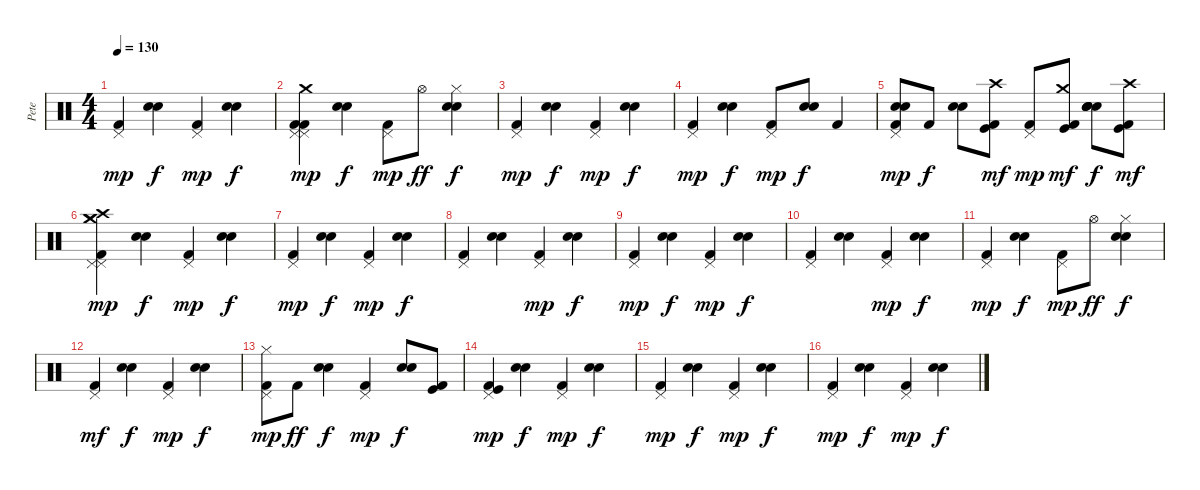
\track ("Pete" "Pete") {instrument percussion}
\staff {score}
\articulation defaults
\ts (4 4)
\tempo 130
\clef neutral
\ks c
("Pedal Hi-Hat (hit)" "Kick (hit) 2").4{dy mp} ("Snare (hit) 2" "Electric Snare (hit)").4{dy f} ("Pedal Hi-Hat (hit)" "Kick (hit) 2").4{dy mp} ("Snare (hit) 2" "Electric Snare (hit)").4{dy f} |
("Pedal Hi-Hat (hit)" "Crash medium (hit)" "Kick (hit) 2" "Pedal Hi-Hat (hit)" "Kick (hit) 2").4{dy mp} ("Snare (hit) 2" "Electric Snare (hit)").4{dy f} ("Pedal Hi-Hat (hit)" "Kick (hit) 2").8{dy mp} "Hi-Hat (open)".8{dy ff} ("Hi-Hat (closed)" "Snare (hit) 2" "Electric Snare (hit)").4{dy f} |
("Pedal Hi-Hat (hit)" "Kick (hit) 2").4{dy mp} ("Snare (hit) 2" "Electric Snare (hit)").4{dy f} ("Pedal Hi-Hat (hit)" "Kick (hit) 2").4{dy mp} ("Snare (hit) 2" "Electric Snare (hit)").4{dy f} |
("Pedal Hi-Hat (hit)" "Kick (hit) 2").4{dy mp} ("Snare (hit) 2" "Electric Snare (hit)").4{dy f} ("Pedal Hi-Hat (hit)" "Kick (hit) 2").8{dy mp} ("Snare (hit) 2" "Electric Snare (hit)").8{dy f} "Kick (hit) 2".4 |
("Snare (hit) 2" "Electric Snare (hit)" "Pedal Hi-Hat (hit)" "Kick (hit) 2").8{dy mp} "Kick (hit) 2".8{dy f} ("Snare (hit) 2" "Electric Snare (hit)").8 ("Kick (hit)" "Kick (hit) 2" "Crash high (hit)").8{dy mf} ("Pedal Hi-Hat (hit)" "Kick (hit) 2").8{dy mp} ("Kick (hit)" "Kick (hit) 2" "Crash medium (hit)").8{dy mf} ("Snare (hit) 2" "Snare (hit) 2" "Electric Snare (hit)" "Electric Snare (hit)").8{dy f} ("Kick (hit)" "Kick (hit) 2" "Crash high (hit)").8{dy mf} |
("Pedal Hi-Hat (hit)" "Crash medium (hit)" "Kick (hit) 2" "Crash medium (hit)" "Crash high (hit)" "Pedal Hi-Hat (hit)").4{dy mp} ("Snare (hit) 2" "Electric Snare (hit)").4{dy f} ("Pedal Hi-Hat (hit)" "Kick (hit) 2").4{dy mp} ("Snare (hit) 2" "Electric Snare (hit)").4{dy f} |
("Pedal Hi-Hat (hit)" "Kick (hit) 2").4{dy mp} ("Snare (hit) 2" "Electric Snare (hit)").4{dy f} ("Pedal Hi-Hat (hit)" "Kick (hit) 2").4{dy mp} ("Snare (hit) 2" "Electric Snare (hit)").4{dy f} |
("Pedal Hi-Hat (hit)" "Kick (hit) 2").4 ("Snare (hit) 2" "Electric Snare (hit)").4 ("Kick (hit) 2" "Pedal Hi-Hat (hit)").4{dy mp} ("Snare (hit) 2" "Electric Snare (hit)").4{dy f} |
("Pedal Hi-Hat (hit)" "Kick (hit) 2").4{dy mp} ("Snare (hit) 2" "Electric Snare (hit)").4{dy f} ("Pedal Hi-Hat (hit)" "Kick (hit) 2").4{dy mp} ("Snare (hit) 2" "Electric Snare (hit)").4{dy f} |
("Pedal Hi-Hat (hit)" "Kick (hit) 2").4 ("Snare (hit) 2" "Electric Snare (hit)").4 ("Kick (hit) 2" "Pedal Hi-Hat (hit)").4{dy mp} ("Snare (hit) 2" "Electric Snare (hit)").4{dy f} |
("Pedal Hi-Hat (hit)" "Kick (hit) 2").4{dy mp} ("Snare (hit) 2" "Electric Snare (hit)").4{dy f} ("Pedal Hi-Hat (hit)" "Kick (hit) 2").8{dy mp} "Hi-Hat (open)".8{dy ff} ("Hi-Hat (closed)" "Snare (hit) 2" "Electric Snare (hit)").4{dy f} |
("Pedal Hi-Hat (hit)" "Kick (hit) 2").4{dy mf} ("Snare (hit) 2" "Electric Snare (hit)").4{dy f} ("Pedal Hi-Hat (hit)" "Kick (hit) 2").4{dy mp} ("Snare (hit) 2" "Electric Snare (hit)").4{dy f} |
("Pedal Hi-Hat (hit)" "Kick (hit) 2" "Hi-Hat (closed)").8{dy mp} "Kick (hit) 2".8{dy ff} ("Snare (hit) 2" "Electric Snare (hit)").4{dy f} ("Pedal Hi-Hat (hit)" "Kick (hit) 2").4{dy mp} ("Snare (hit) 2" "Electric Snare (hit)").8{dy f} ("Kick (hit)" "Kick (hit) 2").8 |
("Pedal Hi-Hat (hit)" "Kick (hit)" "Kick (hit) 2").4{dy mp} ("Snare (hit) 2" "Electric Snare (hit)").4{dy f} ("Pedal Hi-Hat (hit)" "Kick (hit) 2").4{dy mp} ("Snare (hit) 2" "Electric Snare (hit)").4{dy f} |
("Pedal Hi-Hat (hit)" "Kick (hit) 2").4{dy mp} ("Snare (hit) 2" "Electric Snare (hit)").4{dy f} ("Pedal Hi-Hat (hit)" "Kick (hit) 2").4{dy mp} ("Snare (hit) 2" "Electric Snare (hit)").4{dy f} |
("Pedal Hi-Hat (hit)" "Kick (hit) 2").4{dy mp} ("Snare (hit) 2" "Electric Snare (hit)").4{dy f} ("Pedal Hi-Hat (hit)" "Kick (hit) 2").4{dy mp} ("Snare (hit) 2" "Electric Snare (hit)").4{dy f}
